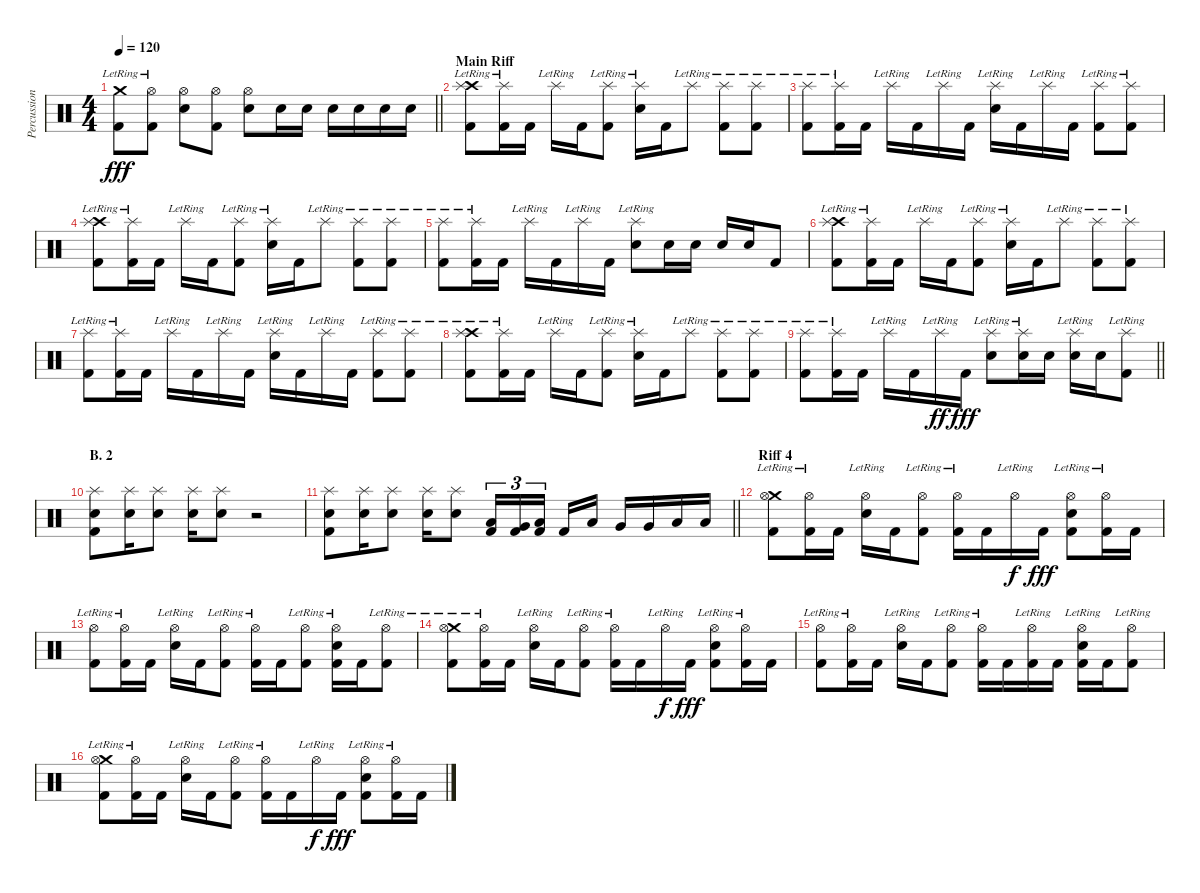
\track ("Percussions" "Percussion") {instrument percussion}
\staff {score}
\articulation defaults
\ts (4 4)
\tempo 120
\clef neutral
\barLineRight lightlight
\ks c
("Crash medium (hit)"{lr} "Kick (hit) 2").8{dy fff} ("Hi-Hat (open)"{lr} "Kick (hit) 2").8 ("Hi-Hat (open)" "Electric Snare (hit)").8 ("Hi-Hat (open)" "Kick (hit) 2").8 ("Hi-Hat (open)" "Electric Snare (hit)").8 "Electric Snare (hit)".16 "Electric Snare (hit)".16 "Electric Snare (hit)".16 "Electric Snare (hit)".16 "Electric Snare (hit)".16 "Electric Snare (hit)".16 |
\section ("" "Main Riff")
("Crash high (hit)"{lr} "Splash (hit)"{lr} "Kick (hit) 2").8 ("Splash (hit)"{lr} "Kick (hit) 2").16 "Kick (hit) 2".16 "Splash (hit)"{lr}.16 "Kick (hit) 2".16 ("Splash (hit)"{lr} "Kick (hit) 2").8 ("Splash (hit)"{lr} "Electric Snare (hit)").16 "Kick (hit) 2".16 "Splash (hit)"{lr}.8 ("Splash (hit)"{lr} "Kick (hit) 2").8 ("Splash (hit)"{lr} "Kick (hit) 2").8 |
("Splash (hit)"{lr} "Kick (hit) 2").8 ("Splash (hit)"{lr} "Kick (hit) 2").16 "Kick (hit) 2".16 "Splash (hit)"{lr}.16 "Kick (hit) 2".16 "Splash (hit)"{lr}.16 "Kick (hit) 2".16 ("Splash (hit)"{lr} "Electric Snare (hit)").16 "Kick (hit) 2".16 "Splash (hit)"{lr}.16 "Kick (hit) 2".16 ("Splash (hit)"{lr} "Kick (hit) 2").8 ("Splash (hit)"{lr} "Kick (hit) 2").8 |
("Crash high (hit)"{lr} "Splash (hit)"{lr} "Kick (hit) 2").8 ("Splash (hit)"{lr} "Kick (hit) 2").16 "Kick (hit) 2".16 "Splash (hit)"{lr}.16 "Kick (hit) 2".16 ("Splash (hit)"{lr} "Kick (hit) 2").8 ("Splash (hit)"{lr} "Electric Snare (hit)").16 "Kick (hit) 2".16 "Splash (hit)"{lr}.8 ("Splash (hit)"{lr} "Kick (hit) 2").8 ("Splash (hit)"{lr} "Kick (hit) 2").8 |
("Splash (hit)"{lr} "Kick (hit) 2").8 ("Splash (hit)"{lr} "Kick (hit) 2").16 "Kick (hit) 2".16 "Splash (hit)"{lr}.16 "Kick (hit) 2".16 "Splash (hit)"{lr}.16 "Kick (hit) 2".16 ("Splash (hit)"{lr} "Electric Snare (hit)").8 "Electric Snare (hit)".16 "Electric Snare (hit)".16 "Electric Snare (hit)".16 "Electric Snare (hit)".16 "Kick (hit) 2".8 |
("Crash high (hit)"{lr} "Splash (hit)"{lr} "Kick (hit) 2").8 ("Splash (hit)"{lr} "Kick (hit) 2").16 "Kick (hit) 2".16 "Splash (hit)"{lr}.16 "Kick (hit) 2".16 ("Splash (hit)"{lr} "Kick (hit) 2").8 ("Splash (hit)"{lr} "Electric Snare (hit)").16 "Kick (hit) 2".16 "Splash (hit)"{lr}.8 ("Splash (hit)"{lr} "Kick (hit) 2").8 ("Splash (hit)"{lr} "Kick (hit) 2").8 |
("Splash (hit)"{lr} "Kick (hit) 2").8 ("Splash (hit)"{lr} "Kick (hit) 2").16 "Kick (hit) 2".16 "Splash (hit)"{lr}.16 "Kick (hit) 2".16 "Splash (hit)"{lr}.16 "Kick (hit) 2".16 ("Splash (hit)"{lr} "Electric Snare (hit)").16 "Kick (hit) 2".16 "Splash (hit)"{lr}.16 "Kick (hit) 2".16 ("Splash (hit)"{lr} "Kick (hit) 2").8 ("Splash (hit)"{lr} "Kick (hit) 2").8 |
("Crash high (hit)"{lr} "Splash (hit)"{lr} "Kick (hit) 2").8 ("Splash (hit)"{lr} "Kick (hit) 2").16 "Kick (hit) 2".16 "Splash (hit)"{lr}.16 "Kick (hit) 2".16 ("Splash (hit)"{lr} "Kick (hit) 2").8 ("Splash (hit)"{lr} "Electric Snare (hit)").16 "Kick (hit) 2".16 "Splash (hit)"{lr}.8 ("Splash (hit)"{lr} "Kick (hit) 2").8 ("Splash (hit)"{lr} "Kick (hit) 2").8 |
\barLineRight lightlight
("Splash (hit)"{lr} "Kick (hit) 2").8 ("Splash (hit)"{lr} "Kick (hit) 2").16 "Kick (hit) 2".16 "Splash (hit)"{lr}.16 "Kick (hit) 2".16 "Splash (hit)"{lr}.16{dy ff} "Kick (hit) 2".16{dy fff} ("Splash (hit)"{lr} "Electric Snare (hit)").8 ("Splash (hit)"{lr} "Electric Snare (hit)").16 "Electric Snare (hit)".16 ("Splash (hit)"{lr} "Electric Snare (hit)").16 "Electric Snare (hit)".16 ("Splash (hit)"{lr} "Kick (hit) 2").8 |
\section ("" "B. 2")
("Splash (hit)" "Electric Snare (hit)" "Kick (hit) 2").8 ("Splash (hit)" "Electric Snare (hit)").16 ("Splash (hit)" "Electric Snare (hit)").8 ("Splash (hit)" "Electric Snare (hit)").16 ("Splash (hit)" "Electric Snare (hit)").8 r.2 |
\barLineRight lightlight
("Splash (hit)" "Electric Snare (hit)" "Kick (hit) 2").8 ("Splash (hit)" "Electric Snare (hit)").16 ("Splash (hit)" "Electric Snare (hit)").8 ("Splash (hit)" "Electric Snare (hit)").16 ("Splash (hit)" "Electric Snare (hit)").8 ("Low Tom (hit)" "Kick (hit) 2").16{tu (3 2)} ("Very Low Tom (hit)" "Kick (hit) 2").16{tu (3 2)} ("Low Floor Tom (hit)" "Kick (hit) 2").16{tu (3 2) beam splitsecondary} "Kick (hit) 2".16 "Low Tom (hit)".16 "Very Low Tom (hit)".16 "Very Low Tom (hit)".16 "Low Floor Tom (hit)".16 "Low Floor Tom (hit)".16 |
\section ("" "Riff 4")
("Crash medium (hit)"{lr} "Hi-Hat (open)"{lr} "Kick (hit) 2").8 ("Hi-Hat (open)"{lr} "Kick (hit) 2").16 "Kick (hit) 2".16 ("Hi-Hat (open)"{lr} "Electric Snare (hit)").16 "Kick (hit) 2".16 ("Hi-Hat (open)"{lr} "Kick (hit) 2").8 ("Hi-Hat (open)"{lr} "Kick (hit) 2").16 "Kick (hit) 2".16 "Hi-Hat (open)"{lr}.16{dy f} "Kick (hit) 2".16{dy fff} ("Hi-Hat (open)"{lr} "Electric Snare (hit)" "Kick (hit) 2").8 ("Hi-Hat (open)"{lr} "Kick (hit) 2").16 "Kick (hit) 2".16 |
("Hi-Hat (open)"{lr} "Kick (hit) 2").8 ("Hi-Hat (open)"{lr} "Kick (hit) 2").16 "Kick (hit) 2".16 ("Hi-Hat (open)"{lr} "Electric Snare (hit)").16 "Kick (hit) 2".16 ("Hi-Hat (open)"{lr} "Kick (hit) 2").8 ("Hi-Hat (open)"{lr} "Kick (hit) 2").16 "Kick (hit) 2".16 ("Hi-Hat (open)"{lr} "Kick (hit) 2").8 ("Hi-Hat (open)"{lr} "Electric Snare (hit)" "Kick (hit) 2").16 "Kick (hit) 2".16 ("Hi-Hat (open)"{lr} "Kick (hit) 2").8 |
("Crash medium (hit)"{lr} "Hi-Hat (open)"{lr} "Kick (hit) 2").8 ("Hi-Hat (open)"{lr} "Kick (hit) 2").16 "Kick (hit) 2".16 ("Hi-Hat (open)"{lr} "Electric Snare (hit)").16 "Kick (hit) 2".16 ("Hi-Hat (open)"{lr} "Kick (hit) 2").8 ("Hi-Hat (open)"{lr} "Kick (hit) 2").16 "Kick (hit) 2".16 "Hi-Hat (open)"{lr}.16{dy f} "Kick (hit) 2".16{dy fff} ("Hi-Hat (open)"{lr} "Electric Snare (hit)" "Kick (hit) 2").8 ("Hi-Hat (open)"{lr} "Kick (hit) 2").16 "Kick (hit) 2".16 |
("Hi-Hat (open)"{lr} "Kick (hit) 2").8 ("Hi-Hat (open)"{lr} "Kick (hit) 2").16 "Kick (hit) 2".16 ("Hi-Hat (open)"{lr} "Electric Snare (hit)").16 "Kick (hit) 2".16 ("Hi-Hat (open)"{lr} "Kick (hit) 2").8 ("Hi-Hat (open)"{lr} "Kick (hit) 2").16 "Kick (hit) 2".16 ("Hi-Hat (open)"{lr} "Kick (hit) 2").16 "Kick (hit) 2".16 ("Hi-Hat (open)"{lr} "Electric Snare (hit)" "Kick (hit) 2").16 "Kick (hit) 2".16 ("Hi-Hat (open)"{lr} "Kick (hit) 2").8 |
("Crash medium (hit)"{lr} "Hi-Hat (open)"{lr} "Kick (hit) 2").8 ("Hi-Hat (open)"{lr} "Kick (hit) 2").16 "Kick (hit) 2".16 ("Hi-Hat (open)"{lr} "Electric Snare (hit)").16 "Kick (hit) 2".16 ("Hi-Hat (open)"{lr} "Kick (hit) 2").8 ("Hi-Hat (open)"{lr} "Kick (hit) 2").16 "Kick (hit) 2".16 "Hi-Hat (open)"{lr}.16{dy f} "Kick (hit) 2".16{dy fff} ("Hi-Hat (open)"{lr} "Electric Snare (hit)" "Kick (hit) 2").8 ("Hi-Hat (open)"{lr} "Kick (hit) 2").16 "Kick (hit) 2".16
